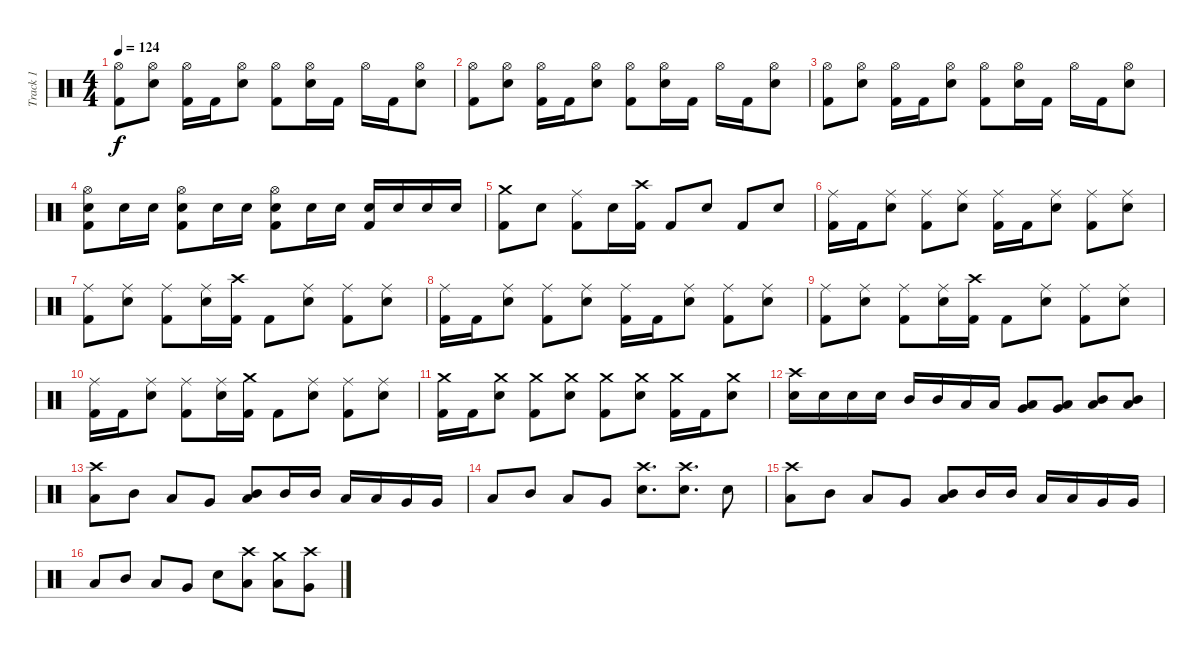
\track ("Track 1" "Track 1") {instrument percussion}
\staff {score}
\articulation defaults
\ts (4 4)
\tempo 124
\clef neutral
\ks c
("Hi-Hat (open)" "Kick (hit) 2").8{dy f} ("Hi-Hat (open)" "Electric Snare (hit)").8 ("Hi-Hat (open)" "Kick (hit) 2").16 "Kick (hit) 2".16 ("Hi-Hat (open)" "Electric Snare (hit)").8 ("Hi-Hat (open)" "Kick (hit) 2").8 ("Hi-Hat (open)" "Electric Snare (hit)").16 "Kick (hit) 2".16 "Hi-Hat (open)".16 "Kick (hit) 2".16 ("Hi-Hat (open)" "Electric Snare (hit)").8 |
("Hi-Hat (open)" "Kick (hit) 2").8 ("Hi-Hat (open)" "Electric Snare (hit)").8 ("Hi-Hat (open)" "Kick (hit) 2").16 "Kick (hit) 2".16 ("Hi-Hat (open)" "Electric Snare (hit)").8 ("Hi-Hat (open)" "Kick (hit) 2").8 ("Hi-Hat (open)" "Electric Snare (hit)").16 "Kick (hit) 2".16 "Hi-Hat (open)".16 "Kick (hit) 2".16 ("Hi-Hat (open)" "Electric Snare (hit)").8 |
("Hi-Hat (open)" "Kick (hit) 2").8 ("Hi-Hat (open)" "Electric Snare (hit)").8 ("Hi-Hat (open)" "Kick (hit) 2").16 "Kick (hit) 2".16 ("Hi-Hat (open)" "Electric Snare (hit)").8 ("Hi-Hat (open)" "Kick (hit) 2").8 ("Hi-Hat (open)" "Electric Snare (hit)").16 "Kick (hit) 2".16 "Hi-Hat (open)".16 "Kick (hit) 2".16 ("Hi-Hat (open)" "Electric Snare (hit)").8 |
("Hi-Hat (open)" "Electric Snare (hit)" "Kick (hit) 2").8 "Electric Snare (hit)".16 "Electric Snare (hit)".16 ("Hi-Hat (open)" "Electric Snare (hit)" "Kick (hit) 2").8 "Electric Snare (hit)".16 "Electric Snare (hit)".16 ("Hi-Hat (open)" "Electric Snare (hit)" "Kick (hit) 2").8 "Electric Snare (hit)".16 "Electric Snare (hit)".16 ("Electric Snare (hit)" "Kick (hit) 2").16 "Electric Snare (hit)".16 "Electric Snare (hit)".16 "Electric Snare (hit)".16 |
("Crash medium (hit)" "Kick (hit) 2").8 "Electric Snare (hit)".8 ("Ride (middle)" "Kick (hit) 2").8 "Electric Snare (hit)".16 ("Crash high (hit)" "Kick (hit) 2").16 "Kick (hit) 2".8 "Electric Snare (hit)".8 "Kick (hit) 2".8 "Electric Snare (hit)".8 |
("Ride (middle)" "Kick (hit) 2").16 "Kick (hit) 2".16 ("Ride (middle)" "Electric Snare (hit)").8 ("Ride (middle)" "Kick (hit) 2").8 ("Ride (middle)" "Electric Snare (hit)").8 ("Ride (middle)" "Kick (hit) 2").16 "Kick (hit) 2".16 ("Ride (middle)" "Electric Snare (hit)").8 ("Ride (middle)" "Kick (hit) 2").8 ("Ride (middle)" "Electric Snare (hit)").8 |
("Ride (middle)" "Kick (hit) 2").8 ("Ride (middle)" "Electric Snare (hit)").8 ("Ride (middle)" "Kick (hit) 2").8 ("Ride (middle)" "Electric Snare (hit)").16 ("Crash high (hit)" "Kick (hit) 2").16 "Kick (hit) 2".8 ("Ride (middle)" "Electric Snare (hit)").8 ("Ride (middle)" "Kick (hit) 2").8 ("Ride (middle)" "Electric Snare (hit)").8 |
("Ride (middle)" "Kick (hit) 2").16 "Kick (hit) 2".16 ("Ride (middle)" "Electric Snare (hit)").8 ("Ride (middle)" "Kick (hit) 2").8 ("Ride (middle)" "Electric Snare (hit)").8 ("Ride (middle)" "Kick (hit) 2").16 "Kick (hit) 2".16 ("Ride (middle)" "Electric Snare (hit)").8 ("Ride (middle)" "Kick (hit) 2").8 ("Ride (middle)" "Electric Snare (hit)").8 |
("Ride (middle)" "Kick (hit) 2").8 ("Ride (middle)" "Electric Snare (hit)").8 ("Ride (middle)" "Kick (hit) 2").8 ("Ride (middle)" "Electric Snare (hit)").16 ("Crash high (hit)" "Kick (hit) 2").16 "Kick (hit) 2".8 ("Ride (middle)" "Electric Snare (hit)").8 ("Ride (middle)" "Kick (hit) 2").8 ("Ride (middle)" "Electric Snare (hit)").8 |
("Ride (middle)" "Kick (hit) 2").16 "Kick (hit) 2".16 ("Ride (middle)" "Electric Snare (hit)").8 ("Ride (middle)" "Kick (hit) 2").8 ("Ride (middle)" "Electric Snare (hit)").16 ("Crash medium (hit)" "Kick (hit) 2").16 "Kick (hit) 2".8 ("Ride (middle)" "Electric Snare (hit)").8 ("Ride (middle)" "Kick (hit) 2").8 ("Ride (middle)" "Electric Snare (hit)").8 |
("Crash medium (hit)" "Kick (hit) 2").16 "Kick (hit) 2".16 ("Crash medium (hit)" "Electric Snare (hit)").8 ("Crash medium (hit)" "Kick (hit) 2").8 ("Crash medium (hit)" "Electric Snare (hit)").8 ("Crash medium (hit)" "Kick (hit) 2").8 ("Crash medium (hit)" "Electric Snare (hit)").8 ("Crash medium (hit)" "Kick (hit) 2").16 "Kick (hit) 2".16 ("Crash medium (hit)" "Electric Snare (hit)").8 |
("Crash high (hit)" "Electric Snare (hit)").16 "Electric Snare (hit)".16 "Electric Snare (hit)".16 "Electric Snare (hit)".16 "Mid Tom (hit)".16 "Mid Tom (hit)".16 "Low Tom (hit)".16 "Low Tom (hit)".16 ("Low Tom (hit)" "Very Low Tom (hit)").8 ("Low Tom (hit)" "Very Low Tom (hit)").8 ("Mid Tom (hit)" "Low Tom (hit)").8 ("Mid Tom (hit)" "Low Tom (hit)").8 |
("Crash high (hit)" "Low Tom (hit)").8 "Mid Tom (hit)".8 "Low Tom (hit)".8 "Very Low Tom (hit)".8 ("Mid Tom (hit)" "Low Tom (hit)").8 "Mid Tom (hit)".16 "Mid Tom (hit)".16 "Low Tom (hit)".16 "Low Tom (hit)".16 "Very Low Tom (hit)".16 "Very Low Tom (hit)".16 |
"Low Tom (hit)".8 "Mid Tom (hit)".8 "Low Tom (hit)".8 "Very Low Tom (hit)".8 ("Crash high (hit)" "Electric Snare (hit)").8{d} ("Crash high (hit)" "Electric Snare (hit)").8{d} "Electric Snare (hit)".8 |
("Crash high (hit)" "Low Tom (hit)").8 "Mid Tom (hit)".8 "Low Tom (hit)".8 "Very Low Tom (hit)".8 ("Mid Tom (hit)" "Low Tom (hit)").8 "Mid Tom (hit)".16 "Mid Tom (hit)".16 "Low Tom (hit)".16 "Low Tom (hit)".16 "Very Low Tom (hit)".16 "Very Low Tom (hit)".16 |
"Low Tom (hit)".8 "Mid Tom (hit)".8 "Low Tom (hit)".8 "Very Low Tom (hit)".8 "Electric Snare (hit)".8 ("Crash high (hit)" "Low Tom (hit)").8 ("Crash medium (hit)" "Low Tom (hit)").8 ("Crash high (hit)" "Very Low Tom (hit)").8
